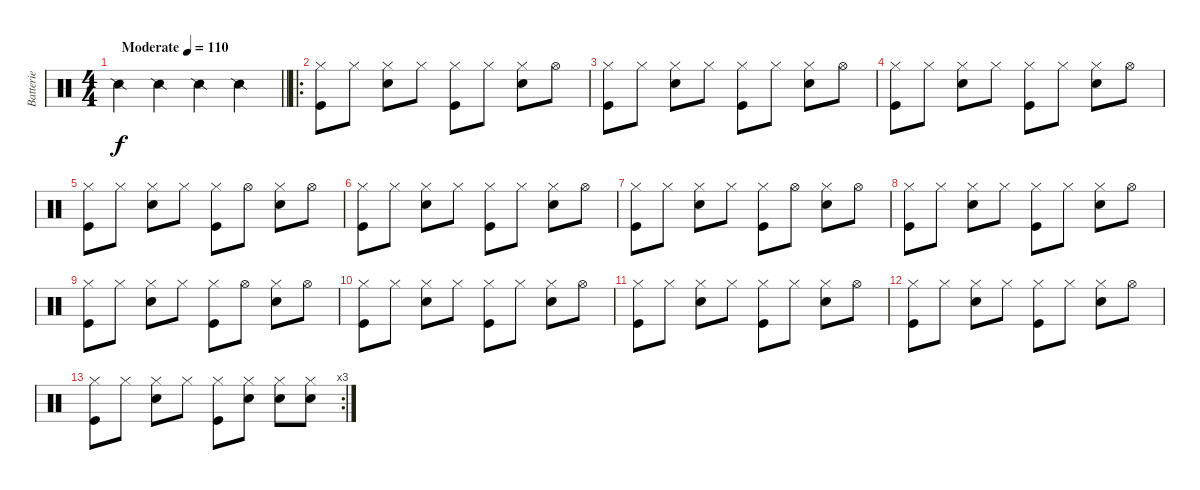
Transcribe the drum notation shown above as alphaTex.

\track ("Batterie" "Batterie") {instrument percussion}
\staff {score}
\articulation defaults
\ts (4 4)
\tempo (110 "Moderate")
\clef neutral
\barLineRight lightlight
\ks c "Snare (side stick) 2".4{dy f} "Snare (side stick) 2".4 "Snare (side stick) 2".4 "Snare (side stick) 2".4
|
\ro
("Hi-Hat (closed)" "Kick (hit)").8 "Hi-Hat (closed)".8 ("Hi-Hat (closed)" "Snare (hit) 2").8 "Hi-Hat (closed)".8 ("Hi-Hat (closed)" "Kick (hit)").8 "Hi-Hat (closed)".8 ("Hi-Hat (closed)" "Snare (hit) 2").8 "Hi-Hat (open)".8 |
("Hi-Hat (closed)" "Kick (hit)").8 "Hi-Hat (closed)".8 ("Hi-Hat (closed)" "Snare (hit) 2").8 "Hi-Hat (closed)".8 ("Hi-Hat (closed)" "Kick (hit)").8 "Hi-Hat (closed)".8 ("Hi-Hat (closed)" "Snare (hit) 2").8 "Hi-Hat (open)".8 |
("Hi-Hat (closed)" "Kick (hit)").8 "Hi-Hat (closed)".8 ("Hi-Hat (closed)" "Snare (hit) 2").8 "Hi-Hat (closed)".8 ("Hi-Hat (closed)" "Kick (hit)").8 "Hi-Hat (closed)".8 ("Hi-Hat (closed)" "Snare (hit) 2").8 "Hi-Hat (open)".8 |
("Hi-Hat (closed)" "Kick (hit)").8 "Hi-Hat (closed)".8 ("Hi-Hat (closed)" "Snare (hit) 2").8 "Hi-Hat (closed)".8 ("Hi-Hat (closed)" "Kick (hit)").8 "Hi-Hat (open)".8 ("Hi-Hat (closed)" "Snare (hit) 2").8 "Hi-Hat (open)".8 |
("Hi-Hat (closed)" "Kick (hit)").8 "Hi-Hat (closed)".8 ("Hi-Hat (closed)" "Snare (hit) 2").8 "Hi-Hat (closed)".8 ("Hi-Hat (closed)" "Kick (hit)").8 "Hi-Hat (closed)".8 ("Hi-Hat (closed)" "Snare (hit) 2").8 "Hi-Hat (open)".8 |
("Hi-Hat (closed)" "Kick (hit)").8 "Hi-Hat (closed)".8 ("Hi-Hat (closed)" "Snare (hit) 2").8 "Hi-Hat (closed)".8 ("Hi-Hat (closed)" "Kick (hit)").8 "Hi-Hat (open)".8 ("Hi-Hat (closed)" "Snare (hit) 2").8 "Hi-Hat (open)".8 |
("Hi-Hat (closed)" "Kick (hit)").8 "Hi-Hat (closed)".8 ("Hi-Hat (closed)" "Snare (hit) 2").8 "Hi-Hat (closed)".8 ("Hi-Hat (closed)" "Kick (hit)").8 "Hi-Hat (closed)".8 ("Hi-Hat (closed)" "Snare (hit) 2").8 "Hi-Hat (open)".8 |
("Hi-Hat (closed)" "Kick (hit)").8 "Hi-Hat (closed)".8 ("Hi-Hat (closed)" "Snare (hit) 2").8 "Hi-Hat (closed)".8 ("Hi-Hat (closed)" "Kick (hit)").8 "Hi-Hat (open)".8 ("Hi-Hat (closed)" "Snare (hit) 2").8 "Hi-Hat (open)".8 |
("Hi-Hat (closed)" "Kick (hit)").8 "Hi-Hat (closed)".8 ("Hi-Hat (closed)" "Snare (hit) 2").8 "Hi-Hat (closed)".8 ("Hi-Hat (closed)" "Kick (hit)").8 "Hi-Hat (closed)".8 ("Hi-Hat (closed)" "Snare (hit) 2").8 "Hi-Hat (open)".8 |
("Hi-Hat (closed)" "Kick (hit)").8 "Hi-Hat (closed)".8 ("Hi-Hat (closed)" "Snare (hit) 2").8 "Hi-Hat (closed)".8 ("Hi-Hat (closed)" "Kick (hit)").8 "Hi-Hat (closed)".8 ("Hi-Hat (closed)" "Snare (hit) 2").8 "Hi-Hat (open)".8 |
("Hi-Hat (closed)" "Kick (hit)").8 "Hi-Hat (closed)".8 ("Hi-Hat (closed)" "Snare (hit) 2").8 "Hi-Hat (closed)".8 ("Hi-Hat (closed)" "Kick (hit)").8 "Hi-Hat (closed)".8 ("Hi-Hat (closed)" "Snare (hit) 2").8 "Hi-Hat (open)".8 |
\rc 3
("Hi-Hat (closed)" "Kick (hit)").8 "Hi-Hat (closed)".8 ("Hi-Hat (closed)" "Snare (hit) 2").8 "Hi-Hat (closed)".8 ("Hi-Hat (closed)" "Kick (hit)").8 ("Hi-Hat (closed)" "Snare (hit) 2").8 ("Hi-Hat (closed)" "Snare (hit) 2").8 ("Hi-Hat (closed)" "Snare (hit) 2").8
